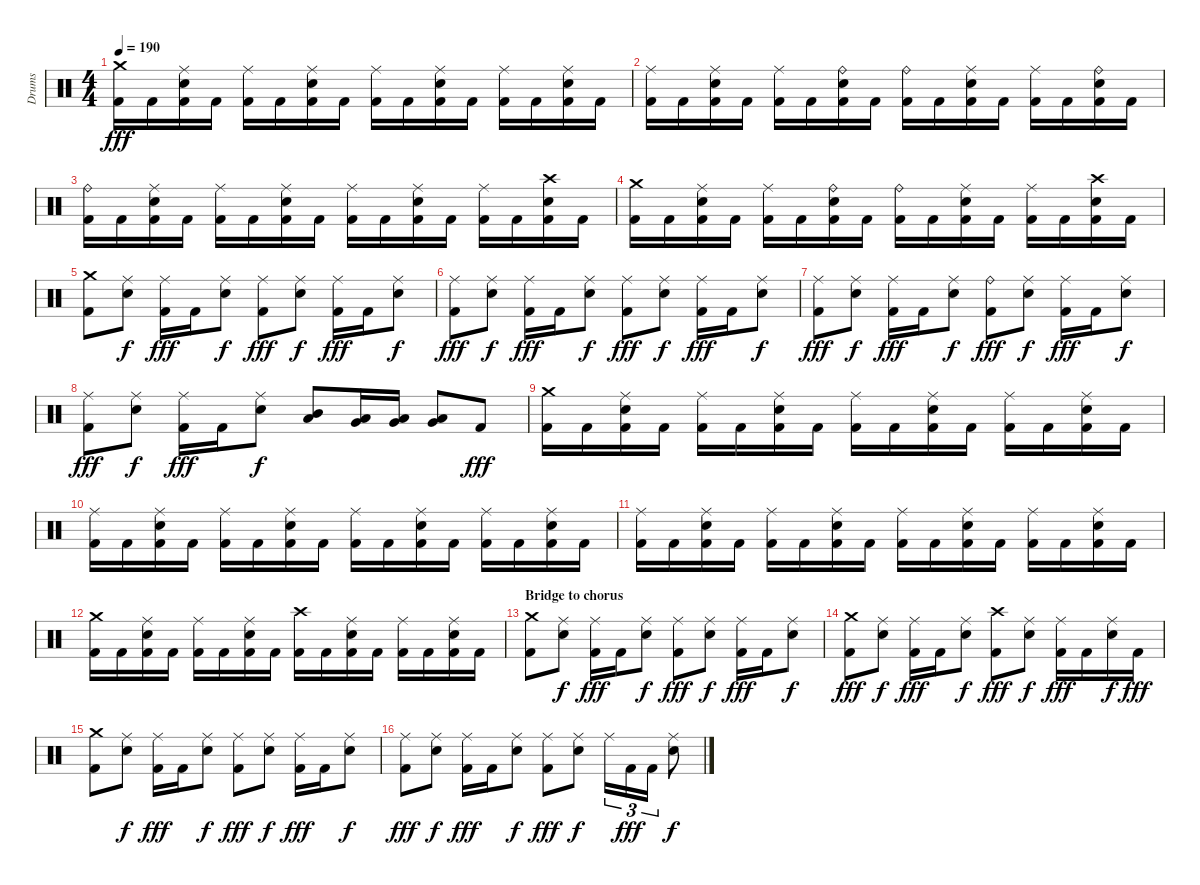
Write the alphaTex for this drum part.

\track ("Drums" "Drums") {instrument percussion}
\staff {score}
\articulation defaults
\ts (4 4)
\tempo 190
\clef neutral
\ks c
("Crash medium (hit)" "Kick (hit) 2").16{dy fff} "Kick (hit) 2".16 ("Ride (middle)" "Snare (hit) 2" "Kick (hit) 2").16 "Kick (hit) 2".16 ("Ride (middle)" "Kick (hit) 2").16 "Kick (hit) 2".16 ("Ride (middle)" "Snare (hit) 2" "Kick (hit) 2").16 "Kick (hit) 2".16 ("Ride (middle)" "Kick (hit) 2").16 "Kick (hit) 2".16 ("Ride (middle)" "Snare (hit) 2" "Kick (hit) 2").16 "Kick (hit) 2".16 ("Ride (middle)" "Kick (hit) 2").16 "Kick (hit) 2".16 ("Ride (middle)" "Snare (hit) 2" "Kick (hit) 2").16 "Kick (hit) 2".16 |
("Ride (middle)" "Kick (hit) 2").16 "Kick (hit) 2".16 ("Ride (middle)" "Snare (hit) 2" "Kick (hit) 2").16 "Kick (hit) 2".16 ("Ride (middle)" "Kick (hit) 2").16 "Kick (hit) 2".16 ("Ride (bell)" "Snare (hit) 2" "Kick (hit) 2").16 "Kick (hit) 2".16 ("Ride (bell)" "Kick (hit) 2").16 "Kick (hit) 2".16 ("Ride (middle)" "Snare (hit) 2" "Kick (hit) 2").16 "Kick (hit) 2".16 ("Ride (middle)" "Kick (hit) 2").16 "Kick (hit) 2".16 ("Ride (bell)" "Snare (hit) 2" "Kick (hit) 2").16 "Kick (hit) 2".16 |
("Ride (bell)" "Kick (hit) 2").16 "Kick (hit) 2".16 ("Ride (middle)" "Snare (hit) 2" "Kick (hit) 2").16 "Kick (hit) 2".16 ("Ride (middle)" "Kick (hit) 2").16 "Kick (hit) 2".16 ("Ride (middle)" "Snare (hit) 2" "Kick (hit) 2").16 "Kick (hit) 2".16 ("Ride (middle)" "Kick (hit) 2").16 "Kick (hit) 2".16 ("Ride (middle)" "Snare (hit) 2" "Kick (hit) 2").16 "Kick (hit) 2".16 ("Ride (middle)" "Kick (hit) 2").16 "Kick (hit) 2".16 ("Crash high (hit)" "Snare (hit) 2" "Kick (hit) 2").16 "Kick (hit) 2".16 |
("Crash medium (hit)" "Kick (hit) 2").16 "Kick (hit) 2".16 ("Ride (middle)" "Snare (hit) 2" "Kick (hit) 2").16 "Kick (hit) 2".16 ("Ride (middle)" "Kick (hit) 2").16 "Kick (hit) 2".16 ("Ride (bell)" "Snare (hit) 2" "Kick (hit) 2").16 "Kick (hit) 2".16 ("Ride (bell)" "Kick (hit) 2").16 "Kick (hit) 2".16 ("Ride (middle)" "Snare (hit) 2" "Kick (hit) 2").16 "Kick (hit) 2".16 ("Ride (middle)" "Kick (hit) 2").16 "Kick (hit) 2".16 ("Crash high (hit)" "Snare (hit) 2" "Kick (hit) 2").16 "Kick (hit) 2".16 |
("Crash medium (hit)" "Kick (hit) 2").8 ("Ride (middle)" "Snare (hit) 2").8{dy f} ("Ride (middle)" "Kick (hit) 2").16{dy fff} "Kick (hit) 2".16 ("Ride (middle)" "Snare (hit) 2").8{dy f} ("Ride (middle)" "Kick (hit) 2").8{dy fff} ("Ride (middle)" "Snare (hit) 2").8{dy f} ("Ride (middle)" "Kick (hit) 2").16{dy fff} "Kick (hit) 2".16 ("Ride (middle)" "Snare (hit) 2").8{dy f} |
("Ride (middle)" "Kick (hit) 2").8{dy fff} ("Ride (middle)" "Snare (hit) 2").8{dy f} ("Ride (middle)" "Kick (hit) 2").16{dy fff} "Kick (hit) 2".16 ("Ride (middle)" "Snare (hit) 2").8{dy f} ("Ride (middle)" "Kick (hit) 2").8{dy fff} ("Ride (middle)" "Snare (hit) 2").8{dy f} ("Ride (middle)" "Kick (hit) 2").16{dy fff} "Kick (hit) 2".16 ("Ride (middle)" "Snare (hit) 2").8{dy f} |
("Ride (middle)" "Kick (hit) 2").8{dy fff} ("Ride (middle)" "Snare (hit) 2").8{dy f} ("Ride (middle)" "Kick (hit) 2").16{dy fff} "Kick (hit) 2".16 ("Ride (middle)" "Snare (hit) 2").8{dy f} ("Ride (bell)" "Kick (hit) 2").8{dy fff} ("Ride (middle)" "Snare (hit) 2").8{dy f} ("Ride (middle)" "Kick (hit) 2").16{dy fff} "Kick (hit) 2".16 ("Ride (middle)" "Snare (hit) 2").8{dy f} |
("Ride (middle)" "Kick (hit) 2").8{dy fff} ("Ride (middle)" "Snare (hit) 2").8{dy f} ("Ride (middle)" "Kick (hit) 2").16{dy fff} "Kick (hit) 2".16 ("Ride (middle)" "Snare (hit) 2").8{dy f} ("Mid Tom (hit)" "Low Tom (hit)").8 ("Very Low Tom (hit)" "Low Tom (hit)").16 ("Very Low Tom (hit)" "Low Tom (hit)").16 ("Very Low Tom (hit)" "Low Tom (hit)").8 "Kick (hit) 2".8{dy fff} |
("Crash medium (hit)" "Kick (hit) 2").16 "Kick (hit) 2".16 ("Ride (middle)" "Snare (hit) 2" "Kick (hit) 2").16 "Kick (hit) 2".16 ("Ride (middle)" "Kick (hit) 2").16 "Kick (hit) 2".16 ("Ride (middle)" "Snare (hit) 2" "Kick (hit) 2").16 "Kick (hit) 2".16 ("Ride (middle)" "Kick (hit) 2").16 "Kick (hit) 2".16 ("Ride (middle)" "Snare (hit) 2" "Kick (hit) 2").16 "Kick (hit) 2".16 ("Ride (middle)" "Kick (hit) 2").16 "Kick (hit) 2".16 ("Ride (middle)" "Snare (hit) 2" "Kick (hit) 2").16 "Kick (hit) 2".16 |
("Ride (middle)" "Kick (hit) 2").16 "Kick (hit) 2".16 ("Ride (middle)" "Snare (hit) 2" "Kick (hit) 2").16 "Kick (hit) 2".16 ("Ride (middle)" "Kick (hit) 2").16 "Kick (hit) 2".16 ("Ride (middle)" "Snare (hit) 2" "Kick (hit) 2").16 "Kick (hit) 2".16 ("Ride (middle)" "Kick (hit) 2").16 "Kick (hit) 2".16 ("Ride (middle)" "Snare (hit) 2" "Kick (hit) 2").16 "Kick (hit) 2".16 ("Ride (middle)" "Kick (hit) 2").16 "Kick (hit) 2".16 ("Ride (middle)" "Snare (hit) 2" "Kick (hit) 2").16 "Kick (hit) 2".16 |
("Ride (middle)" "Kick (hit) 2").16 "Kick (hit) 2".16 ("Ride (middle)" "Snare (hit) 2" "Kick (hit) 2").16 "Kick (hit) 2".16 ("Ride (middle)" "Kick (hit) 2").16 "Kick (hit) 2".16 ("Ride (middle)" "Snare (hit) 2" "Kick (hit) 2").16 "Kick (hit) 2".16 ("Ride (middle)" "Kick (hit) 2").16 "Kick (hit) 2".16 ("Ride (middle)" "Snare (hit) 2" "Kick (hit) 2").16 "Kick (hit) 2".16 ("Ride (middle)" "Kick (hit) 2").16 "Kick (hit) 2".16 ("Ride (middle)" "Snare (hit) 2" "Kick (hit) 2").16 "Kick (hit) 2".16 |
("Crash medium (hit)" "Kick (hit) 2").16 "Kick (hit) 2".16 ("Ride (middle)" "Snare (hit) 2" "Kick (hit) 2").16 "Kick (hit) 2".16 ("Ride (middle)" "Kick (hit) 2").16 "Kick (hit) 2".16 ("Ride (middle)" "Snare (hit) 2" "Kick (hit) 2").16 "Kick (hit) 2".16 ("Crash high (hit)" "Kick (hit) 2").16 "Kick (hit) 2".16 ("Ride (middle)" "Snare (hit) 2" "Kick (hit) 2").16 "Kick (hit) 2".16 ("Ride (middle)" "Kick (hit) 2").16 "Kick (hit) 2".16 ("Ride (middle)" "Snare (hit) 2" "Kick (hit) 2").16 "Kick (hit) 2".16 |
\section ("" "Bridge to chorus")
("Crash medium (hit)" "Kick (hit) 2").8 ("Ride (middle)" "Snare (hit) 2").8{dy f} ("Ride (middle)" "Kick (hit) 2").16{dy fff} "Kick (hit) 2".16 ("Ride (middle)" "Snare (hit) 2").8{dy f} ("Ride (middle)" "Kick (hit) 2").8{dy fff} ("Ride (middle)" "Snare (hit) 2").8{dy f} ("Ride (middle)" "Kick (hit) 2").16{dy fff} "Kick (hit) 2".16 ("Ride (middle)" "Snare (hit) 2").8{dy f} |
("Crash medium (hit)" "Kick (hit) 2").8{dy fff} ("Ride (middle)" "Snare (hit) 2").8{dy f} ("Ride (middle)" "Kick (hit) 2").16{dy fff} "Kick (hit) 2".16 ("Ride (middle)" "Snare (hit) 2").8{dy f} ("Crash high (hit)" "Kick (hit) 2").8{dy fff} ("Ride (middle)" "Snare (hit) 2").8{dy f} ("Ride (middle)" "Kick (hit) 2").16{dy fff} "Kick (hit) 2".16 ("Ride (middle)" "Snare (hit) 2").16{dy f} "Kick (hit) 2".16{dy fff} |
("Crash medium (hit)" "Kick (hit) 2").8 ("Ride (middle)" "Snare (hit) 2").8{dy f} ("Ride (middle)" "Kick (hit) 2").16{dy fff} "Kick (hit) 2".16 ("Ride (middle)" "Snare (hit) 2").8{dy f} ("Ride (middle)" "Kick (hit) 2").8{dy fff} ("Ride (middle)" "Snare (hit) 2").8{dy f} ("Ride (middle)" "Kick (hit) 2").16{dy fff} "Kick (hit) 2".16 ("Ride (middle)" "Snare (hit) 2").8{dy f} |
("Ride (middle)" "Kick (hit) 2").8{dy fff} ("Ride (middle)" "Snare (hit) 2").8{dy f} ("Ride (middle)" "Kick (hit) 2").16{dy fff} "Kick (hit) 2".16 ("Ride (middle)" "Snare (hit) 2").8{dy f} ("Ride (middle)" "Kick (hit) 2").8{dy fff} ("Ride (middle)" "Snare (hit) 2").8{dy f} "Ride (middle)".16{tu (3 2)} "Kick (hit) 2".16{tu (3 2) dy fff} "Kick (hit) 2".16{tu (3 2)} ("Ride (middle)" "Snare (hit) 2").8{dy f}
